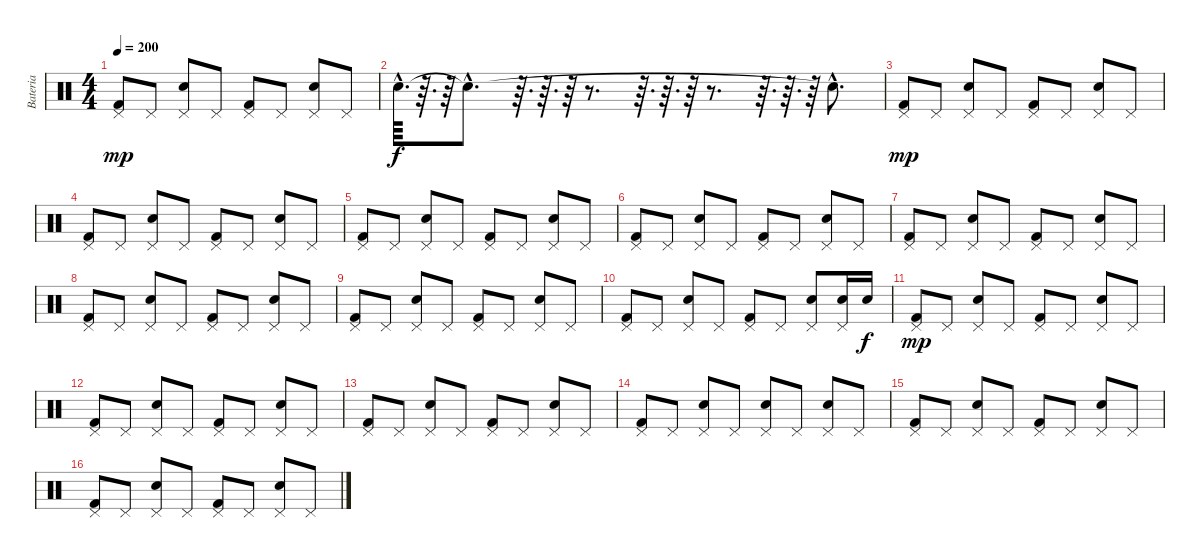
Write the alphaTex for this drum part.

\track ("Bateria" "Bateria") {instrument percussion}
\staff {score}
\articulation defaults
\ts (4 4)
\tempo 200
\clef neutral
\ks c
("Pedal Hi-Hat (hit)" "Kick (hit) 2").8{dy mp} "Pedal Hi-Hat (hit)".8 ("Pedal Hi-Hat (hit)" "Electric Snare (hit)").8 "Pedal Hi-Hat (hit)".8 ("Pedal Hi-Hat (hit)" "Kick (hit) 2").8 "Pedal Hi-Hat (hit)".8 ("Pedal Hi-Hat (hit)" "Electric Snare (hit)").8 "Pedal Hi-Hat (hit)".8 |
"Electric Snare (hit)"{hac}.64{d dy f} r.64{d} r.64 "Snare (hit)"{hac t}.8{d} r.64{d} r.64{d} r.64 r.8{d} r.64{d} r.64{d} r.64 r.8{d} r.64{d} r.64{d} r.64 "Electric Snare (hit)"{hac t}.8{d} |
("Pedal Hi-Hat (hit)" "Kick (hit) 2").8{dy mp} "Pedal Hi-Hat (hit)".8 ("Pedal Hi-Hat (hit)" "Electric Snare (hit)").8 "Pedal Hi-Hat (hit)".8 ("Pedal Hi-Hat (hit)" "Kick (hit) 2").8 "Pedal Hi-Hat (hit)".8 ("Pedal Hi-Hat (hit)" "Electric Snare (hit)").8 "Pedal Hi-Hat (hit)".8 |
("Pedal Hi-Hat (hit)" "Kick (hit) 2").8 "Pedal Hi-Hat (hit)".8 ("Pedal Hi-Hat (hit)" "Electric Snare (hit)").8 "Pedal Hi-Hat (hit)".8 ("Pedal Hi-Hat (hit)" "Kick (hit) 2").8 "Pedal Hi-Hat (hit)".8 ("Pedal Hi-Hat (hit)" "Electric Snare (hit)").8 "Pedal Hi-Hat (hit)".8 |
("Pedal Hi-Hat (hit)" "Kick (hit) 2").8 "Pedal Hi-Hat (hit)".8 ("Pedal Hi-Hat (hit)" "Electric Snare (hit)").8 "Pedal Hi-Hat (hit)".8 ("Pedal Hi-Hat (hit)" "Kick (hit) 2").8 "Pedal Hi-Hat (hit)".8 ("Pedal Hi-Hat (hit)" "Electric Snare (hit)").8 "Pedal Hi-Hat (hit)".8 |
("Pedal Hi-Hat (hit)" "Kick (hit) 2").8 "Pedal Hi-Hat (hit)".8 ("Pedal Hi-Hat (hit)" "Electric Snare (hit)").8 "Pedal Hi-Hat (hit)".8 ("Pedal Hi-Hat (hit)" "Kick (hit) 2").8 "Pedal Hi-Hat (hit)".8 ("Pedal Hi-Hat (hit)" "Electric Snare (hit)").8 "Pedal Hi-Hat (hit)".8 |
("Pedal Hi-Hat (hit)" "Kick (hit) 2").8 "Pedal Hi-Hat (hit)".8 ("Pedal Hi-Hat (hit)" "Electric Snare (hit)").8 "Pedal Hi-Hat (hit)".8 ("Pedal Hi-Hat (hit)" "Kick (hit) 2").8 "Pedal Hi-Hat (hit)".8 ("Pedal Hi-Hat (hit)" "Electric Snare (hit)").8 "Pedal Hi-Hat (hit)".8 |
("Pedal Hi-Hat (hit)" "Kick (hit) 2").8 "Pedal Hi-Hat (hit)".8 ("Pedal Hi-Hat (hit)" "Electric Snare (hit)").8 "Pedal Hi-Hat (hit)".8 ("Pedal Hi-Hat (hit)" "Kick (hit) 2").8 "Pedal Hi-Hat (hit)".8 ("Pedal Hi-Hat (hit)" "Electric Snare (hit)").8 "Pedal Hi-Hat (hit)".8 |
("Pedal Hi-Hat (hit)" "Kick (hit) 2").8 "Pedal Hi-Hat (hit)".8 ("Pedal Hi-Hat (hit)" "Electric Snare (hit)").8 "Pedal Hi-Hat (hit)".8 ("Pedal Hi-Hat (hit)" "Kick (hit) 2").8 "Pedal Hi-Hat (hit)".8 ("Pedal Hi-Hat (hit)" "Electric Snare (hit)").8 "Pedal Hi-Hat (hit)".8 |
("Pedal Hi-Hat (hit)" "Kick (hit) 2").8 "Pedal Hi-Hat (hit)".8 ("Pedal Hi-Hat (hit)" "Electric Snare (hit)").8 "Pedal Hi-Hat (hit)".8 ("Pedal Hi-Hat (hit)" "Kick (hit) 2").8 "Pedal Hi-Hat (hit)".8 ("Pedal Hi-Hat (hit)" "Electric Snare (hit)").8 ("Pedal Hi-Hat (hit)" "Electric Snare (hit)").16 "Electric Snare (hit)".16{dy f} |
("Pedal Hi-Hat (hit)" "Kick (hit) 2").8{dy mp} "Pedal Hi-Hat (hit)".8 ("Pedal Hi-Hat (hit)" "Electric Snare (hit)").8 "Pedal Hi-Hat (hit)".8 ("Pedal Hi-Hat (hit)" "Kick (hit) 2").8 "Pedal Hi-Hat (hit)".8 ("Pedal Hi-Hat (hit)" "Electric Snare (hit)").8 "Pedal Hi-Hat (hit)".8 |
("Pedal Hi-Hat (hit)" "Kick (hit) 2").8 "Pedal Hi-Hat (hit)".8 ("Pedal Hi-Hat (hit)" "Electric Snare (hit)").8 "Pedal Hi-Hat (hit)".8 ("Pedal Hi-Hat (hit)" "Kick (hit) 2").8 "Pedal Hi-Hat (hit)".8 ("Pedal Hi-Hat (hit)" "Electric Snare (hit)").8 "Pedal Hi-Hat (hit)".8 |
("Pedal Hi-Hat (hit)" "Kick (hit) 2").8 "Pedal Hi-Hat (hit)".8 ("Pedal Hi-Hat (hit)" "Electric Snare (hit)").8 "Pedal Hi-Hat (hit)".8 ("Pedal Hi-Hat (hit)" "Kick (hit) 2").8 "Pedal Hi-Hat (hit)".8 ("Pedal Hi-Hat (hit)" "Electric Snare (hit)").8 "Pedal Hi-Hat (hit)".8 |
("Pedal Hi-Hat (hit)" "Kick (hit) 2").8 "Pedal Hi-Hat (hit)".8 ("Pedal Hi-Hat (hit)" "Electric Snare (hit)").8 "Pedal Hi-Hat (hit)".8 ("Pedal Hi-Hat (hit)" "Electric Snare (hit)").8 "Pedal Hi-Hat (hit)".8 ("Pedal Hi-Hat (hit)" "Electric Snare (hit)").8 "Pedal Hi-Hat (hit)".8 |
("Pedal Hi-Hat (hit)" "Kick (hit) 2").8 "Pedal Hi-Hat (hit)".8 ("Pedal Hi-Hat (hit)" "Electric Snare (hit)").8 "Pedal Hi-Hat (hit)".8 ("Pedal Hi-Hat (hit)" "Kick (hit) 2").8 "Pedal Hi-Hat (hit)".8 ("Pedal Hi-Hat (hit)" "Electric Snare (hit)").8 "Pedal Hi-Hat (hit)".8 |
("Pedal Hi-Hat (hit)" "Kick (hit) 2").8 "Pedal Hi-Hat (hit)".8 ("Pedal Hi-Hat (hit)" "Electric Snare (hit)").8 "Pedal Hi-Hat (hit)".8 ("Pedal Hi-Hat (hit)" "Kick (hit) 2").8 "Pedal Hi-Hat (hit)".8 ("Pedal Hi-Hat (hit)" "Electric Snare (hit)").8 "Pedal Hi-Hat (hit)".8
